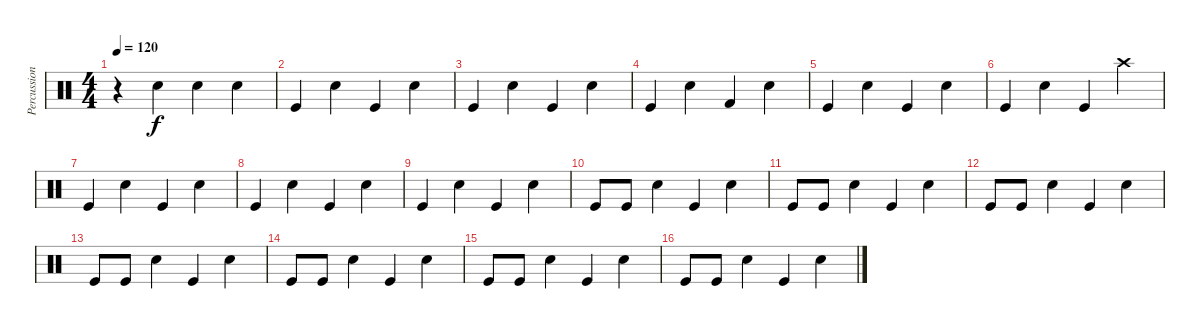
\track ("Percussion" "Percussion") {instrument percussion}
\staff {score}
\articulation defaults
\ts (4 4)
\tempo 120
\clef neutral
\ks c
r.4{dy f} "Electric Snare (hit)".4 "Electric Snare (hit)".4 "Electric Snare (hit)".4 |
"Kick (hit)".4 "Electric Snare (hit)".4 "Kick (hit)".4 "Electric Snare (hit)".4 |
"Kick (hit)".4 "Electric Snare (hit)".4 "Kick (hit)".4 "Electric Snare (hit)".4 |
"Kick (hit)".4 "Electric Snare (hit)".4 "Kick (hit) 2".4 "Electric Snare (hit)".4 |
"Kick (hit)".4 "Electric Snare (hit)".4 "Kick (hit)".4 "Electric Snare (hit)".4 |
"Kick (hit)".4 "Electric Snare (hit)".4 "Kick (hit)".4 "Crash high (hit)".4 |
"Kick (hit)".4 "Electric Snare (hit)".4 "Kick (hit)".4 "Electric Snare (hit)".4 |
"Kick (hit)".4 "Electric Snare (hit)".4 "Kick (hit)".4 "Electric Snare (hit)".4 |
"Kick (hit)".4 "Electric Snare (hit)".4 "Kick (hit)".4 "Electric Snare (hit)".4 |
"Kick (hit)".8 "Kick (hit)".8 "Electric Snare (hit)".4 "Kick (hit)".4 "Electric Snare (hit)".4 |
"Kick (hit)".8 "Kick (hit)".8 "Electric Snare (hit)".4 "Kick (hit)".4 "Electric Snare (hit)".4 |
"Kick (hit)".8 "Kick (hit)".8 "Electric Snare (hit)".4 "Kick (hit)".4 "Electric Snare (hit)".4 |
"Kick (hit)".8 "Kick (hit)".8 "Electric Snare (hit)".4 "Kick (hit)".4 "Electric Snare (hit)".4 |
"Kick (hit)".8 "Kick (hit)".8 "Electric Snare (hit)".4 "Kick (hit)".4 "Electric Snare (hit)".4 |
"Kick (hit)".8 "Kick (hit)".8 "Electric Snare (hit)".4 "Kick (hit)".4 "Electric Snare (hit)".4 |
"Kick (hit)".8 "Kick (hit)".8 "Electric Snare (hit)".4 "Kick (hit)".4 "Electric Snare (hit)".4
